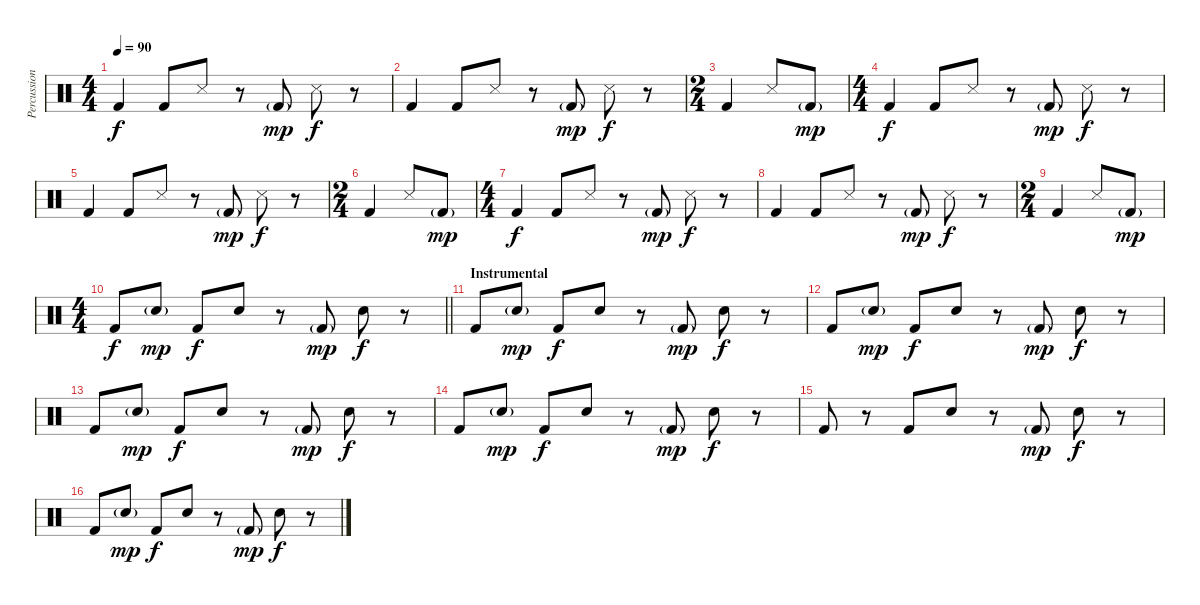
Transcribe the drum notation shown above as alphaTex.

\track ("Percussion" "Percussion") {instrument percussion}
\staff {score}
\articulation defaults
\ts (4 4)
\tempo 90
\clef neutral
\ks c "Kick (hit) 2".4{dy f} "Kick (hit) 2".8 "Snare (side stick) 3".8
r.8 "Kick (hit) 2"{g}.8{dy mp} "Snare (side stick) 3".8{dy f} r.8 |
"Kick (hit) 2".4 "Kick (hit) 2".8 "Snare (side stick) 3".8 r.8 "Kick (hit) 2"{g}.8{dy mp} "Snare (side stick) 3".8{dy f} r.8 |
\ts (2 4)
"Kick (hit) 2".4 "Snare (side stick) 3".8 "Kick (hit) 2"{g}.8{dy mp} |
\ts (4 4)
"Kick (hit) 2".4{dy f} "Kick (hit) 2".8 "Snare (side stick) 3".8 r.8 "Kick (hit) 2"{g}.8{dy mp} "Snare (side stick) 3".8{dy f} r.8 |
"Kick (hit) 2".4 "Kick (hit) 2".8 "Snare (side stick) 3".8 r.8 "Kick (hit) 2"{g}.8{dy mp} "Snare (side stick) 3".8{dy f} r.8 |
\ts (2 4)
"Kick (hit) 2".4 "Snare (side stick) 3".8 "Kick (hit) 2"{g}.8{dy mp} |
\ts (4 4)
"Kick (hit) 2".4{dy f} "Kick (hit) 2".8 "Snare (side stick) 3".8 r.8 "Kick (hit) 2"{g}.8{dy mp} "Snare (side stick) 3".8{dy f} r.8 |
"Kick (hit) 2".4 "Kick (hit) 2".8 "Snare (side stick) 3".8 r.8 "Kick (hit) 2"{g}.8{dy mp} "Snare (side stick) 3".8{dy f} r.8 |
\ts (2 4)
"Kick (hit) 2".4 "Snare (side stick) 3".8 "Kick (hit) 2"{g}.8{dy mp} |
\ts (4 4)
\barLineRight lightlight "Kick (hit) 2".8{dy f} "Snare (hit) 2"{g}.8{dy mp} "Kick (hit) 2".8{dy f} "Snare (hit) 2".8
r.8 "Kick (hit) 2"{g}.8{dy mp} "Snare (hit) 2".8{dy f} r.8 |
\section ("" "Instrumental")
"Kick (hit) 2".8 "Snare (hit) 2"{g}.8{dy mp} "Kick (hit) 2".8{dy f} "Snare (hit) 2".8 r.8 "Kick (hit) 2"{g}.8{dy mp} "Snare (hit) 2".8{dy f} r.8 |
"Kick (hit) 2".8 "Snare (hit) 2"{g}.8{dy mp} "Kick (hit) 2".8{dy f} "Snare (hit) 2".8 r.8 "Kick (hit) 2"{g}.8{dy mp} "Snare (hit) 2".8{dy f} r.8 |
"Kick (hit) 2".8 "Snare (hit) 2"{g}.8{dy mp} "Kick (hit) 2".8{dy f} "Snare (hit) 2".8 r.8 "Kick (hit) 2"{g}.8{dy mp} "Snare (hit) 2".8{dy f} r.8 |
"Kick (hit) 2".8 "Snare (hit) 2"{g}.8{dy mp} "Kick (hit) 2".8{dy f} "Snare (hit) 2".8 r.8 "Kick (hit) 2"{g}.8{dy mp} "Snare (hit) 2".8{dy f} r.8 |
"Kick (hit) 2".8 r.8 "Kick (hit) 2".8 "Snare (hit) 2".8 r.8 "Kick (hit) 2"{g}.8{dy mp} "Snare (hit) 2".8{dy f} r.8 |
"Kick (hit) 2".8 "Snare (hit) 2"{g}.8{dy mp} "Kick (hit) 2".8{dy f} "Snare (hit) 2".8 r.8 "Kick (hit) 2"{g}.8{dy mp} "Snare (hit) 2".8{dy f} r.8
